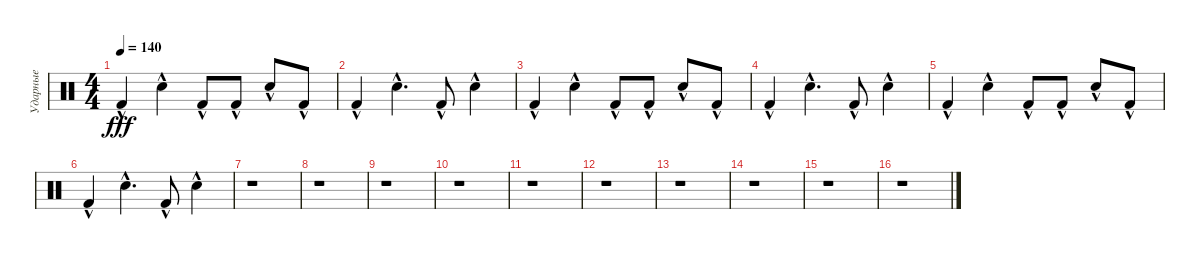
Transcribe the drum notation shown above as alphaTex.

\track ("Ударные" "Ударные") {instrument percussion}
\staff {score}
\articulation defaults
\ts (4 4)
\tempo 140
\clef neutral
\ks c "Kick (hit) 2"{hac}.4{dy fff} "Snare (hit) 2"{hac}.4 "Kick (hit) 2"{hac}.8 "Kick (hit) 2"{hac}.8 "Snare (hit) 2"{hac}.8 "Kick (hit) 2"{hac}.8
|
"Kick (hit) 2"{hac}.4 "Snare (hit) 2"{hac}.4{d} "Kick (hit) 2"{hac}.8 "Snare (hit) 2"{hac}.4 |
"Kick (hit) 2"{hac}.4 "Snare (hit) 2"{hac}.4 "Kick (hit) 2"{hac}.8 "Kick (hit) 2"{hac}.8 "Snare (hit) 2"{hac}.8 "Kick (hit) 2"{hac}.8 |
"Kick (hit) 2"{hac}.4 "Snare (hit) 2"{hac}.4{d} "Kick (hit) 2"{hac}.8 "Snare (hit) 2"{hac}.4 |
"Kick (hit) 2"{hac}.4 "Snare (hit) 2"{hac}.4 "Kick (hit) 2"{hac}.8 "Kick (hit) 2"{hac}.8 "Snare (hit) 2"{hac}.8 "Kick (hit) 2"{hac}.8 |
"Kick (hit) 2"{hac}.4 "Snare (hit) 2"{hac}.4{d} "Kick (hit) 2"{hac}.8 "Snare (hit) 2"{hac}.4 |
r.1 |
r.1 |
r.1 |
r.1 |
r.1 |
r.1 |
r.1 |
r.1 |
r.1 |
r.1
